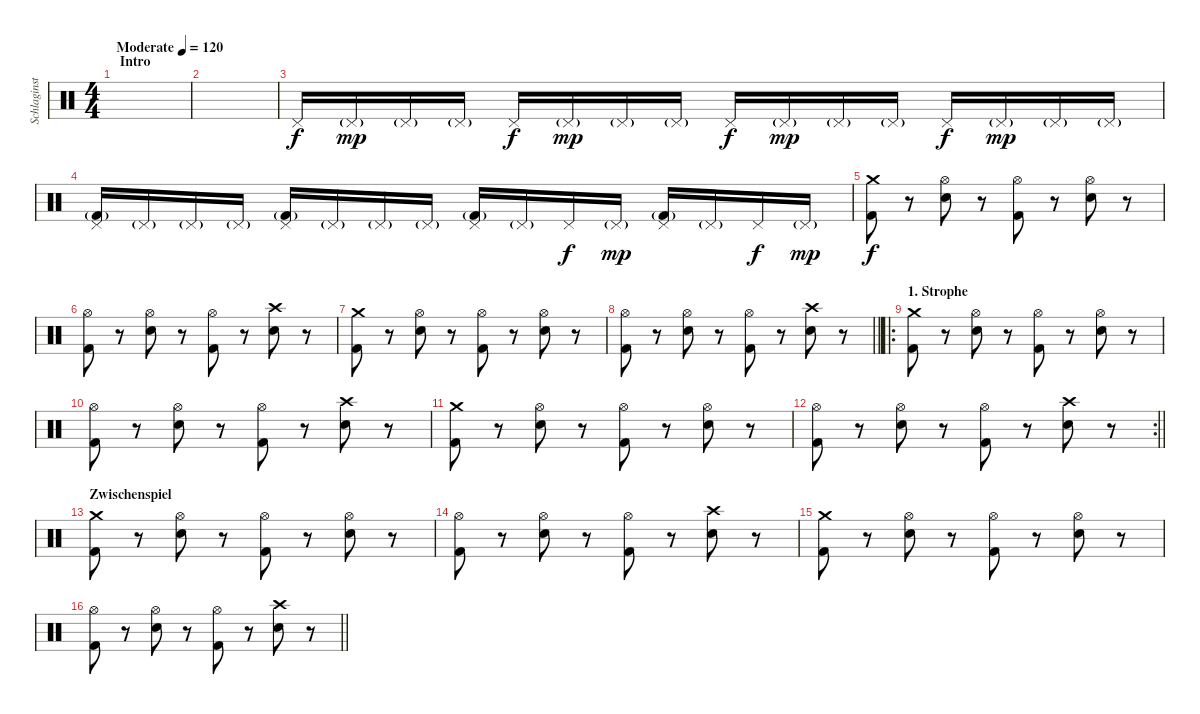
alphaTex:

\track ("Schlaginstrumente - Auswahl" "Schlaginst") {instrument percussion}
\staff {score}
\articulation defaults
\ts (4 4)
\section ("" " Intro")
\tempo (120 "Moderate")
\clef neutral
\ks c
|
|
"Pedal Hi-Hat (hit)".16 "Pedal Hi-Hat (hit)"{g}.16{dy mp} "Pedal Hi-Hat (hit)"{g}.16 "Pedal Hi-Hat (hit)"{g}.16 "Pedal Hi-Hat (hit)".16{dy f} "Pedal Hi-Hat (hit)"{g}.16{dy mp} "Pedal Hi-Hat (hit)"{g}.16 "Pedal Hi-Hat (hit)"{g}.16 "Pedal Hi-Hat (hit)".16{dy f} "Pedal Hi-Hat (hit)"{g}.16{dy mp} "Pedal Hi-Hat (hit)"{g}.16 "Pedal Hi-Hat (hit)"{g}.16 "Pedal Hi-Hat (hit)".16{dy f} "Pedal Hi-Hat (hit)"{g}.16{dy mp} "Pedal Hi-Hat (hit)"{g}.16 "Pedal Hi-Hat (hit)"{g}.16 |
("Pedal Hi-Hat (hit)" "Kick (hit) 2"{g}).16 "Pedal Hi-Hat (hit)"{g}.16 "Pedal Hi-Hat (hit)"{g}.16 "Pedal Hi-Hat (hit)"{g}.16 ("Pedal Hi-Hat (hit)" "Kick (hit) 2"{g}).16 "Pedal Hi-Hat (hit)"{g}.16 "Pedal Hi-Hat (hit)"{g}.16 "Pedal Hi-Hat (hit)"{g}.16 ("Pedal Hi-Hat (hit)" "Kick (hit) 2"{g}).16 "Pedal Hi-Hat (hit)"{g}.16 "Pedal Hi-Hat (hit)".16{dy f} "Pedal Hi-Hat (hit)"{g}.16{dy mp} ("Pedal Hi-Hat (hit)" "Kick (hit) 2"{g}).16 "Pedal Hi-Hat (hit)"{g}.16 "Pedal Hi-Hat (hit)".16{dy f} "Pedal Hi-Hat (hit)"{g}.16{dy mp} |
("Crash medium (hit)" "Kick (hit) 2").8{dy f} r.8 ("Hi-Hat (open)" "Electric Snare (hit)").8 r.8 ("Hi-Hat (open)" "Kick (hit) 2").8 r.8 ("Hi-Hat (open)" "Electric Snare (hit)").8 r.8 |
("Hi-Hat (open)" "Kick (hit) 2").8 r.8 ("Hi-Hat (open)" "Electric Snare (hit)").8 r.8 ("Hi-Hat (open)" "Kick (hit) 2").8 r.8 ("Crash high (hit)" "Electric Snare (hit)").8 r.8 |
("Crash medium (hit)" "Kick (hit) 2").8 r.8 ("Hi-Hat (open)" "Electric Snare (hit)").8 r.8 ("Hi-Hat (open)" "Kick (hit) 2").8 r.8 ("Hi-Hat (open)" "Electric Snare (hit)").8 r.8 |
\barLineRight lightlight
("Hi-Hat (open)" "Kick (hit) 2").8 r.8 ("Hi-Hat (open)" "Electric Snare (hit)").8 r.8 ("Hi-Hat (open)" "Kick (hit) 2").8 r.8 ("Crash high (hit)" "Electric Snare (hit)").8 r.8 |
\ro
\section ("" "1. Strophe")
("Crash medium (hit)" "Kick (hit) 2").8 r.8 ("Hi-Hat (open)" "Electric Snare (hit)").8 r.8 ("Hi-Hat (open)" "Kick (hit) 2").8 r.8 ("Hi-Hat (open)" "Electric Snare (hit)").8 r.8 |
("Hi-Hat (open)" "Kick (hit) 2").8 r.8 ("Hi-Hat (open)" "Electric Snare (hit)").8 r.8 ("Hi-Hat (open)" "Kick (hit) 2").8 r.8 ("Crash high (hit)" "Electric Snare (hit)").8 r.8 |
("Crash medium (hit)" "Kick (hit) 2").8 r.8 ("Hi-Hat (open)" "Electric Snare (hit)").8 r.8 ("Hi-Hat (open)" "Kick (hit) 2").8 r.8 ("Hi-Hat (open)" "Electric Snare (hit)").8 r.8 |
\rc 2
\barLineRight lightlight
("Hi-Hat (open)" "Kick (hit) 2").8 r.8 ("Hi-Hat (open)" "Electric Snare (hit)").8 r.8 ("Hi-Hat (open)" "Kick (hit) 2").8 r.8 ("Crash high (hit)" "Electric Snare (hit)").8 r.8 |
\section ("" "Zwischenspiel")
("Crash medium (hit)" "Kick (hit) 2").8 r.8 ("Hi-Hat (open)" "Electric Snare (hit)").8 r.8 ("Hi-Hat (open)" "Kick (hit) 2").8 r.8 ("Hi-Hat (open)" "Electric Snare (hit)").8 r.8 |
("Hi-Hat (open)" "Kick (hit) 2").8 r.8 ("Hi-Hat (open)" "Electric Snare (hit)").8 r.8 ("Hi-Hat (open)" "Kick (hit) 2").8 r.8 ("Crash high (hit)" "Electric Snare (hit)").8 r.8 |
("Crash medium (hit)" "Kick (hit) 2").8 r.8 ("Hi-Hat (open)" "Electric Snare (hit)").8 r.8 ("Hi-Hat (open)" "Kick (hit) 2").8 r.8 ("Hi-Hat (open)" "Electric Snare (hit)").8 r.8 |
\barLineRight lightlight
("Hi-Hat (open)" "Kick (hit) 2").8 r.8 ("Hi-Hat (open)" "Electric Snare (hit)").8 r.8 ("Hi-Hat (open)" "Kick (hit) 2").8 r.8 ("Crash high (hit)" "Electric Snare (hit)").8 r.8
